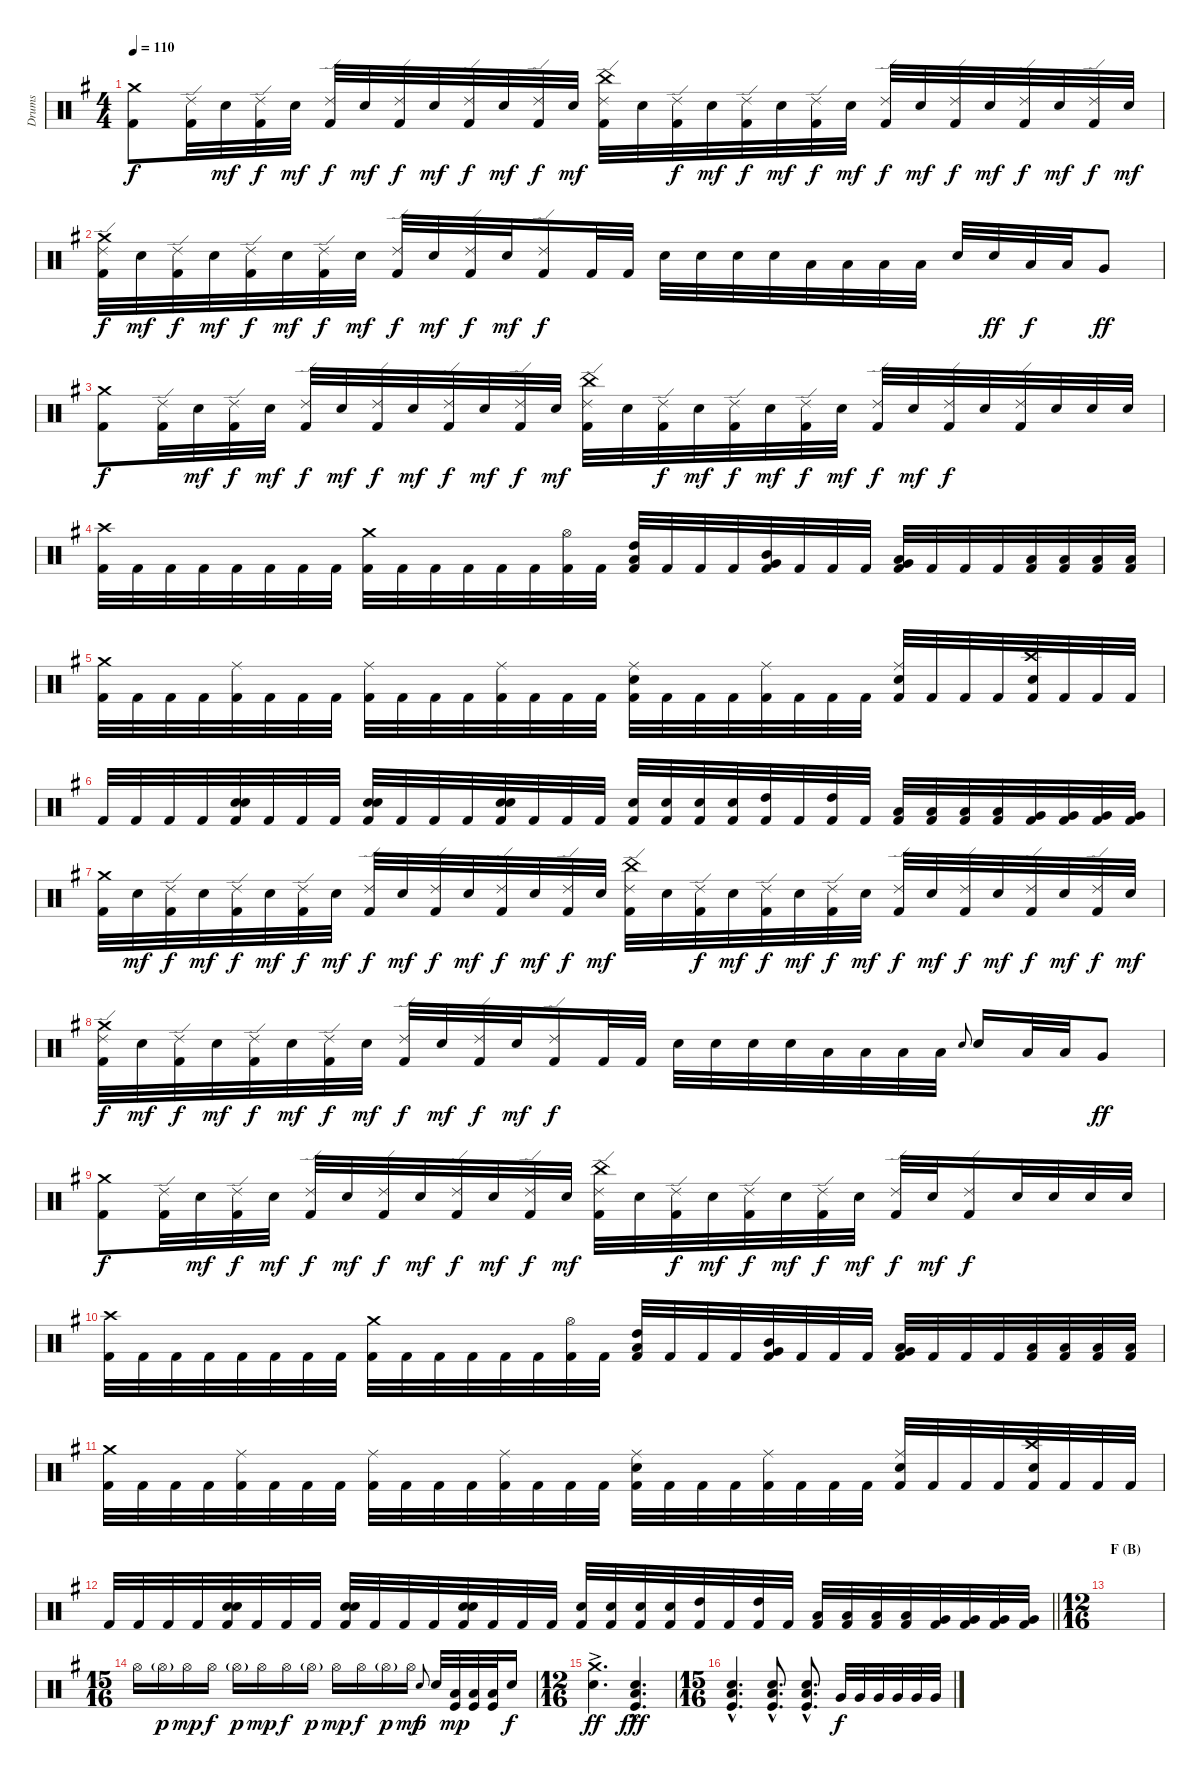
\track ("Drums" "Drums") {instrument percussion}
\staff {score}
\articulation defaults
\ts (4 4)
\tempo 110
\clef neutral
\ks eminor
("Crash medium (hit)" "Kick (hit) 2").8{dy f} ("Ride (edge) 2" "Kick (hit) 2").32 "Snare (hit) 2".32{dy mf} ("Ride (edge) 2" "Kick (hit) 2").32{dy f} "Snare (hit) 2".32{dy mf} ("Ride (edge) 2" "Kick (hit) 2").32{dy f} "Snare (hit) 2".32{dy mf} ("Ride (edge) 2" "Kick (hit) 2").32{dy f} "Snare (hit) 2".32{dy mf} ("Ride (edge) 2" "Kick (hit) 2").32{dy f} "Snare (hit) 2".32{dy mf} ("Ride (edge) 2" "Kick (hit) 2").32{dy f} "Snare (hit) 2".32{dy mf} ("China (hit)" "Ride (edge) 2" "Kick (hit) 2").32 "Snare (hit) 2".32 ("Ride (edge) 2" "Kick (hit) 2").32{dy f} "Snare (hit) 2".32{dy mf} ("Ride (edge) 2" "Kick (hit) 2").32{dy f} "Snare (hit) 2".32{dy mf} ("Ride (edge) 2" "Kick (hit) 2").32{dy f} "Snare (hit) 2".32{dy mf} ("Ride (edge) 2" "Kick (hit) 2").32{dy f} "Snare (hit) 2".32{dy mf} ("Ride (edge) 2" "Kick (hit) 2").32{dy f} "Snare (hit) 2".32{dy mf} ("Ride (edge) 2" "Kick (hit) 2").32{dy f} "Snare (hit) 2".32{dy mf} ("Ride (edge) 2" "Kick (hit) 2").32{dy f} "Snare (hit) 2".32{dy mf} |
("Crash medium (hit)" "Ride (edge) 2" "Kick (hit) 2").32{dy f} "Snare (hit) 2".32{dy mf} ("Ride (edge) 2" "Kick (hit) 2").32{dy f} "Snare (hit) 2".32{dy mf} ("Ride (edge) 2" "Kick (hit) 2").32{dy f} "Snare (hit) 2".32{dy mf} ("Ride (edge) 2" "Kick (hit) 2").32{dy f} "Snare (hit) 2".32{dy mf} ("Ride (edge) 2" "Kick (hit) 2").32{dy f} "Snare (hit) 2".32{dy mf} ("Ride (edge) 2" "Kick (hit) 2").32{dy f} "Snare (hit) 2".32{dy mf} ("Ride (edge) 2" "Kick (hit) 2").16{dy f} "Kick (hit) 2".32 "Kick (hit) 2".32 "Snare (hit) 2".32 "Snare (hit) 2".32 "Snare (hit) 2".32 "Snare (hit) 2".32 "Low Tom (hit)".32 "Low Tom (hit)".32 "Low Tom (hit)".32 "Low Tom (hit)".32 "Snare (hit) 2".32 "Snare (hit) 2".32{dy ff} "Low Tom (hit)".32{dy f} "Low Tom (hit)".32 "Very Low Tom (hit)".8{dy ff} |
("Crash medium (hit)" "Kick (hit) 2").8{dy f} ("Ride (edge) 2" "Kick (hit) 2").32 "Snare (hit) 2".32{dy mf} ("Ride (edge) 2" "Kick (hit) 2").32{dy f} "Snare (hit) 2".32{dy mf} ("Ride (edge) 2" "Kick (hit) 2").32{dy f} "Snare (hit) 2".32{dy mf} ("Ride (edge) 2" "Kick (hit) 2").32{dy f} "Snare (hit) 2".32{dy mf} ("Ride (edge) 2" "Kick (hit) 2").32{dy f} "Snare (hit) 2".32{dy mf} ("Ride (edge) 2" "Kick (hit) 2").32{dy f} "Snare (hit) 2".32{dy mf} ("China (hit)" "Ride (edge) 2" "Kick (hit) 2").32 "Snare (hit) 2".32 ("Ride (edge) 2" "Kick (hit) 2").32{dy f} "Snare (hit) 2".32{dy mf} ("Ride (edge) 2" "Kick (hit) 2").32{dy f} "Snare (hit) 2".32{dy mf} ("Ride (edge) 2" "Kick (hit) 2").32{dy f} "Snare (hit) 2".32{dy mf} ("Ride (edge) 2" "Kick (hit) 2").32{dy f} "Snare (hit) 2".32{dy mf} ("Ride (edge) 2" "Kick (hit) 2").32{dy f} "Snare (hit) 2".32 ("Ride (edge) 2" "Kick (hit) 2").32 "Snare (hit) 2".32 "Snare (hit) 2".32 "Snare (hit) 2".32 |
("Crash high (hit)" "Kick (hit) 2").32 "Kick (hit) 2".32 "Kick (hit) 2".32 "Kick (hit) 2".32 "Kick (hit) 2".32 "Kick (hit) 2".32 "Kick (hit) 2".32 "Kick (hit) 2".32 ("Crash medium (hit)" "Kick (hit) 2").32 "Kick (hit) 2".32 "Kick (hit) 2".32 "Kick (hit) 2".32 "Kick (hit) 2".32 "Kick (hit) 2".32 ("Hi-Hat (open)" "Kick (hit) 2").32 "Kick (hit) 2".32 ("High Tom (hit)" "Low Tom (hit)" "Kick (hit) 2").32 "Kick (hit) 2".32 "Kick (hit) 2".32 "Kick (hit) 2".32 ("Mid Tom (hit)" "Very Low Tom (hit)" "Kick (hit) 2").32 "Kick (hit) 2".32 "Kick (hit) 2".32 "Kick (hit) 2".32 ("Very Low Tom (hit)" "Low Floor Tom (hit)" "Kick (hit) 2").32 "Kick (hit) 2".32 "Kick (hit) 2".32 "Kick (hit) 2".32 ("Low Floor Tom (hit)" "Kick (hit) 2").32 ("Low Floor Tom (hit)" "Kick (hit) 2").32 ("Low Floor Tom (hit)" "Kick (hit) 2").32 ("Low Floor Tom (hit)" "Kick (hit) 2").32 |
("Crash medium (hit)" "Kick (hit) 2").32 "Kick (hit) 2".32 "Kick (hit) 2".32 "Kick (hit) 2".32 ("Ride (middle)" "Kick (hit) 2").32 "Kick (hit) 2".32 "Kick (hit) 2".32 "Kick (hit) 2".32 ("Ride (middle)" "Kick (hit) 2").32 "Kick (hit) 2".32 "Kick (hit) 2".32 "Kick (hit) 2".32 ("Ride (middle)" "Kick (hit) 2").32 "Kick (hit) 2".32 "Kick (hit) 2".32 "Kick (hit) 2".32 ("Ride (middle)" "Electric Snare (hit)" "Kick (hit) 2").32 "Kick (hit) 2".32 "Kick (hit) 2".32 "Kick (hit) 2".32 ("Ride (middle)" "Kick (hit) 2").32 "Kick (hit) 2".32 "Kick (hit) 2".32 "Kick (hit) 2".32 ("Ride (middle)" "Electric Snare (hit)" "Kick (hit) 2").32 "Kick (hit) 2".32 "Kick (hit) 2".32 "Kick (hit) 2".32 ("Crash high (hit)" "Electric Snare (hit)" "Kick (hit) 2").32 "Kick (hit) 2".32 "Kick (hit) 2".32 "Kick (hit) 2".32 |
"Kick (hit) 2".32 "Kick (hit) 2".32 "Kick (hit) 2".32 "Kick (hit) 2".32 ("Electric Snare (hit)" "Electric Snare (hit)" "Kick (hit) 2").32 "Kick (hit) 2".32 "Kick (hit) 2".32 "Kick (hit) 2".32 ("Electric Snare (hit)" "Electric Snare (hit)" "Kick (hit) 2").32 "Kick (hit) 2".32 "Kick (hit) 2".32 "Kick (hit) 2".32 ("Electric Snare (hit)" "Electric Snare (hit)" "Kick (hit) 2").32 "Kick (hit) 2".32 "Kick (hit) 2".32 "Kick (hit) 2".32 ("Electric Snare (hit)" "Kick (hit) 2").32 ("Electric Snare (hit)" "Kick (hit) 2").32 ("Electric Snare (hit)" "Kick (hit) 2").32 ("Electric Snare (hit)" "Kick (hit) 2").32 ("High Tom (hit)" "Kick (hit) 2").32 "Kick (hit) 2".32 ("High Tom (hit)" "Kick (hit) 2").32 "Kick (hit) 2".32 ("Low Tom (hit)" "Kick (hit) 2").32 ("Low Tom (hit)" "Kick (hit) 2").32 ("Low Tom (hit)" "Kick (hit) 2").32 ("Low Tom (hit)" "Kick (hit) 2").32 ("Very Low Tom (hit)" "Kick (hit) 2").32 ("Very Low Tom (hit)" "Kick (hit) 2").32 ("Very Low Tom (hit)" "Kick (hit) 2").32 ("Very Low Tom (hit)" "Kick (hit) 2").32 |
("Crash medium (hit)" "Kick (hit) 2").32 "Snare (hit) 2".32{dy mf} ("Ride (edge) 2" "Kick (hit) 2").32{dy f} "Snare (hit) 2".32{dy mf} ("Ride (edge) 2" "Kick (hit) 2").32{dy f} "Snare (hit) 2".32{dy mf} ("Ride (edge) 2" "Kick (hit) 2").32{dy f} "Snare (hit) 2".32{dy mf} ("Ride (edge) 2" "Kick (hit) 2").32{dy f} "Snare (hit) 2".32{dy mf} ("Ride (edge) 2" "Kick (hit) 2").32{dy f} "Snare (hit) 2".32{dy mf} ("Ride (edge) 2" "Kick (hit) 2").32{dy f} "Snare (hit) 2".32{dy mf} ("Ride (edge) 2" "Kick (hit) 2").32{dy f} "Snare (hit) 2".32{dy mf} ("China (hit)" "Ride (edge) 2" "Kick (hit) 2").32 "Snare (hit) 2".32 ("Ride (edge) 2" "Kick (hit) 2").32{dy f} "Snare (hit) 2".32{dy mf} ("Ride (edge) 2" "Kick (hit) 2").32{dy f} "Snare (hit) 2".32{dy mf} ("Ride (edge) 2" "Kick (hit) 2").32{dy f} "Snare (hit) 2".32{dy mf} ("Ride (edge) 2" "Kick (hit) 2").32{dy f} "Snare (hit) 2".32{dy mf} ("Ride (edge) 2" "Kick (hit) 2").32{dy f} "Snare (hit) 2".32{dy mf} ("Ride (edge) 2" "Kick (hit) 2").32{dy f} "Snare (hit) 2".32{dy mf} ("Ride (edge) 2" "Kick (hit) 2").32{dy f} "Snare (hit) 2".32{dy mf} |
("Crash medium (hit)" "Ride (edge) 2" "Kick (hit) 2").32{dy f} "Snare (hit) 2".32{dy mf} ("Ride (edge) 2" "Kick (hit) 2").32{dy f} "Snare (hit) 2".32{dy mf} ("Ride (edge) 2" "Kick (hit) 2").32{dy f} "Snare (hit) 2".32{dy mf} ("Ride (edge) 2" "Kick (hit) 2").32{dy f} "Snare (hit) 2".32{dy mf} ("Ride (edge) 2" "Kick (hit) 2").32{dy f} "Snare (hit) 2".32{dy mf} ("Ride (edge) 2" "Kick (hit) 2").32{dy f} "Snare (hit) 2".32{dy mf} ("Ride (edge) 2" "Kick (hit) 2").16{dy f} "Kick (hit) 2".32 "Kick (hit) 2".32 "Snare (hit) 2".32 "Snare (hit) 2".32 "Snare (hit) 2".32 "Snare (hit) 2".32 "Low Tom (hit)".32 "Low Tom (hit)".32 "Low Tom (hit)".32 "Low Tom (hit)".32 "Snare (hit) 2".8{gr onbeat} "Snare (hit) 2".16 "Low Tom (hit)".32 "Low Tom (hit)".32 "Very Low Tom (hit)".8{dy ff} |
("Crash medium (hit)" "Kick (hit) 2").8{dy f} ("Ride (edge) 2" "Kick (hit) 2").32 "Snare (hit) 2".32{dy mf} ("Ride (edge) 2" "Kick (hit) 2").32{dy f} "Snare (hit) 2".32{dy mf} ("Ride (edge) 2" "Kick (hit) 2").32{dy f} "Snare (hit) 2".32{dy mf} ("Ride (edge) 2" "Kick (hit) 2").32{dy f} "Snare (hit) 2".32{dy mf} ("Ride (edge) 2" "Kick (hit) 2").32{dy f} "Snare (hit) 2".32{dy mf} ("Ride (edge) 2" "Kick (hit) 2").32{dy f} "Snare (hit) 2".32{dy mf} ("China (hit)" "Ride (edge) 2" "Kick (hit) 2").32 "Snare (hit) 2".32 ("Ride (edge) 2" "Kick (hit) 2").32{dy f} "Snare (hit) 2".32{dy mf} ("Ride (edge) 2" "Kick (hit) 2").32{dy f} "Snare (hit) 2".32{dy mf} ("Ride (edge) 2" "Kick (hit) 2").32{dy f} "Snare (hit) 2".32{dy mf} ("Ride (edge) 2" "Kick (hit) 2").32{dy f} "Snare (hit) 2".32{dy mf} ("Ride (edge) 2" "Kick (hit) 2").16{dy f} "Snare (hit) 2".32 "Snare (hit) 2".32 "Snare (hit) 2".32 "Snare (hit) 2".32 |
("Crash high (hit)" "Kick (hit) 2").32 "Kick (hit) 2".32 "Kick (hit) 2".32 "Kick (hit) 2".32 "Kick (hit) 2".32 "Kick (hit) 2".32 "Kick (hit) 2".32 "Kick (hit) 2".32 ("Crash medium (hit)" "Kick (hit) 2").32 "Kick (hit) 2".32 "Kick (hit) 2".32 "Kick (hit) 2".32 "Kick (hit) 2".32 "Kick (hit) 2".32 ("Hi-Hat (open)" "Kick (hit) 2").32 "Kick (hit) 2".32 ("High Tom (hit)" "Low Tom (hit)" "Kick (hit) 2").32 "Kick (hit) 2".32 "Kick (hit) 2".32 "Kick (hit) 2".32 ("Mid Tom (hit)" "Very Low Tom (hit)" "Kick (hit) 2").32 "Kick (hit) 2".32 "Kick (hit) 2".32 "Kick (hit) 2".32 ("Very Low Tom (hit)" "Low Floor Tom (hit)" "Kick (hit) 2").32 "Kick (hit) 2".32 "Kick (hit) 2".32 "Kick (hit) 2".32 ("Low Floor Tom (hit)" "Kick (hit) 2").32 ("Low Floor Tom (hit)" "Kick (hit) 2").32 ("Low Floor Tom (hit)" "Kick (hit) 2").32 ("Low Floor Tom (hit)" "Kick (hit) 2").32 |
("Crash medium (hit)" "Kick (hit) 2").32 "Kick (hit) 2".32 "Kick (hit) 2".32 "Kick (hit) 2".32 ("Ride (middle)" "Kick (hit) 2").32 "Kick (hit) 2".32 "Kick (hit) 2".32 "Kick (hit) 2".32 ("Ride (middle)" "Kick (hit) 2").32 "Kick (hit) 2".32 "Kick (hit) 2".32 "Kick (hit) 2".32 ("Ride (middle)" "Kick (hit) 2").32 "Kick (hit) 2".32 "Kick (hit) 2".32 "Kick (hit) 2".32 ("Ride (middle)" "Electric Snare (hit)" "Kick (hit) 2").32 "Kick (hit) 2".32 "Kick (hit) 2".32 "Kick (hit) 2".32 ("Ride (middle)" "Kick (hit) 2").32 "Kick (hit) 2".32 "Kick (hit) 2".32 "Kick (hit) 2".32 ("Ride (middle)" "Electric Snare (hit)" "Kick (hit) 2").32 "Kick (hit) 2".32 "Kick (hit) 2".32 "Kick (hit) 2".32 ("Crash high (hit)" "Electric Snare (hit)" "Kick (hit) 2").32 "Kick (hit) 2".32 "Kick (hit) 2".32 "Kick (hit) 2".32 |
\barLineRight lightlight "Kick (hit) 2".32 "Kick (hit) 2".32 "Kick (hit) 2".32 "Kick (hit) 2".32
("Electric Snare (hit)" "Electric Snare (hit)" "Kick (hit) 2").32 "Kick (hit) 2".32 "Kick (hit) 2".32 "Kick (hit) 2".32 ("Electric Snare (hit)" "Electric Snare (hit)" "Kick (hit) 2").32 "Kick (hit) 2".32 "Kick (hit) 2".32 "Kick (hit) 2".32 ("Electric Snare (hit)" "Electric Snare (hit)" "Kick (hit) 2").32 "Kick (hit) 2".32 "Kick (hit) 2".32 "Kick (hit) 2".32 ("Electric Snare (hit)" "Kick (hit) 2").32 ("Electric Snare (hit)" "Kick (hit) 2").32 ("Electric Snare (hit)" "Kick (hit) 2").32 ("Electric Snare (hit)" "Kick (hit) 2").32 ("High Tom (hit)" "Kick (hit) 2").32 "Kick (hit) 2".32 ("High Tom (hit)" "Kick (hit) 2").32 "Kick (hit) 2".32 ("Low Tom (hit)" "Kick (hit) 2").32 ("Low Tom (hit)" "Kick (hit) 2").32 ("Low Tom (hit)" "Kick (hit) 2").32 ("Low Tom (hit)" "Kick (hit) 2").32 ("Very Low Tom (hit)" "Kick (hit) 2").32 ("Very Low Tom (hit)" "Kick (hit) 2").32 ("Very Low Tom (hit)" "Kick (hit) 2").32 ("Very Low Tom (hit)" "Kick (hit) 2").32 |
\ts (12 16)
\section ("" "F (B)")
|
\ts (15 16)
"Hi-Hat (open)".16 "Hi-Hat (open)"{g}.16{dy p} "Hi-Hat (open)".16{dy mp} "Hi-Hat (open)".16{dy f} "Hi-Hat (open)"{g}.16{dy p} "Hi-Hat (open)".16{dy mp} "Hi-Hat (open)".16{dy f} "Hi-Hat (open)"{g}.16{dy p} "Hi-Hat (open)".16{dy mp} "Hi-Hat (open)".16{dy f} "Hi-Hat (open)"{g}.16{dy p} "Hi-Hat (open)".16{dy mp} "Electric Snare (hit)".8{gr onbeat dy f} "Electric Snare (hit)".32 ("Low Floor Tom (hit)" "Kick (hit)").32{dy mp} ("Low Floor Tom (hit)" "Kick (hit)").32 ("Low Floor Tom (hit)" "Kick (hit)").32 "Electric Snare (hit)".16{dy f} |
\ts (12 16)
("Crash medium (hit)" "Electric Snare (hit)"{ac}).4{d dy ff} ("Low Floor Tom (hit)"{hac} "Electric Snare (hit)"{hac} "Kick (hit)").4{d dy fff} |
\ts (15 16)
("Low Floor Tom (hit)"{hac} "Electric Snare (hit)"{hac} "Kick (hit)").4{d} ("Low Floor Tom (hit)"{hac} "Electric Snare (hit)"{hac} "Kick (hit)").8{d} ("Low Floor Tom (hit)"{hac} "Electric Snare (hit)"{hac} "Kick (hit)").8{d} "Very Low Tom (hit)".32{dy f} "Very Low Tom (hit)".32 "Very Low Tom (hit)".32 "Very Low Tom (hit)".32 "Very Low Tom (hit)".32 "Very Low Tom (hit)".32
